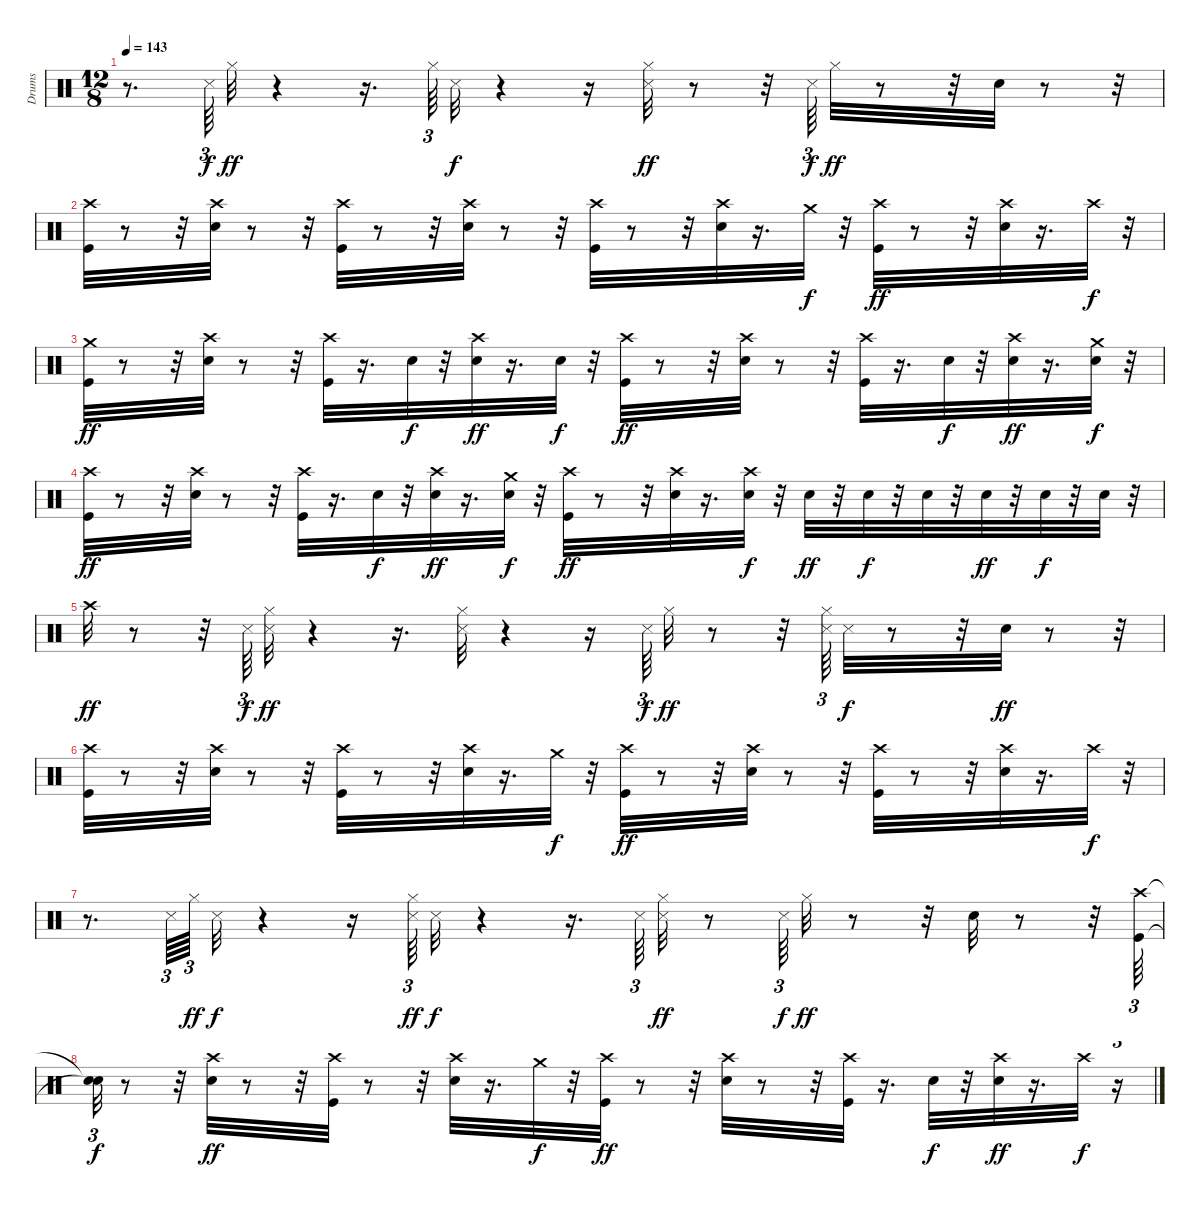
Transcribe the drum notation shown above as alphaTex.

\track ("Drums" "Drums") {instrument percussion}
\staff {score}
\articulation defaults
\ts (12 8)
\tempo 143
\clef neutral
\ks c
r.8{d dy f} "Metronome (hit)".64{tu (3 2)} "Hi-Hat (closed)".32{dy ff} r.4 r.16{d} "Hi-Hat (closed)".64{tu (3 2)} "Metronome (hit)".32{dy f} r.4 r.16 ("Metronome (hit)" "Hi-Hat (closed)").32{dy ff} r.8 r.32 "Metronome (hit)".64{tu (3 2) dy f} "Hi-Hat (closed)".32{dy ff} r.8 r.32 "Snare (hit) 2".32 r.8 r.32 |
("Crash high (hit)" "Kick (hit)").32 r.8 r.32 ("Crash high (hit)" "Snare (hit) 2").32 r.8 r.32 ("Crash high (hit)" "Kick (hit)").32 r.8 r.32 ("Crash high (hit)" "Snare (hit) 2").32 r.8 r.32 ("Crash high (hit)" "Kick (hit)").32 r.8 r.32 ("Crash high (hit)" "Snare (hit) 2").32 r.16{d} "Crash medium (hit)".32{dy f} r.32 ("Crash high (hit)" "Kick (hit)").32{dy ff} r.8 r.32 ("Crash high (hit)" "Snare (hit) 2").32 r.16{d} "Crash high (hit)".32{dy f} r.32 |
("Crash medium (hit)" "Kick (hit)").32{dy ff} r.8 r.32 ("Crash high (hit)" "Snare (hit) 2").32 r.8 r.32 ("Crash high (hit)" "Kick (hit)").32 r.16{d} "Snare (hit) 2".32{dy f} r.32 ("Crash high (hit)" "Snare (hit) 2").32{dy ff} r.16{d} "Snare (hit) 2".32{dy f} r.32 ("Crash high (hit)" "Kick (hit)").32{dy ff} r.8 r.32 ("Crash high (hit)" "Snare (hit) 2").32 r.8 r.32 ("Crash high (hit)" "Kick (hit)").32 r.16{d} "Snare (hit) 2".32{dy f} r.32 ("Crash high (hit)" "Snare (hit) 2").32{dy ff} r.16{d} ("Crash medium (hit)" "Snare (hit) 2").32{dy f} r.32 |
("Crash high (hit)" "Kick (hit)").32{dy ff} r.8 r.32 ("Crash high (hit)" "Snare (hit) 2").32 r.8 r.32 ("Crash high (hit)" "Kick (hit)").32 r.16{d} "Snare (hit) 2".32{dy f} r.32 ("Crash high (hit)" "Snare (hit) 2").32{dy ff} r.16{d} ("Crash medium (hit)" "Snare (hit) 2").32{dy f} r.32 ("Kick (hit)" "Crash high (hit)").32{dy ff} r.8 r.32 ("Snare (hit) 2" "Crash high (hit)").32 r.16{d} ("Electric Snare (hit)" "Crash high (hit)").32{dy f} r.32 "Snare (hit) 2".32{dy ff} r.32 "Snare (hit) 2".32{dy f} r.32 "Snare (hit) 2".32 r.32 "Snare (hit) 2".32{dy ff} r.32 "Snare (hit) 2".32{dy f} r.32 "Snare (hit) 2".32 r.32 |
"Crash high (hit)".32{dy ff} r.8 r.32 "Metronome (hit)".64{tu (3 2) dy f} ("Metronome (hit)" "Hi-Hat (closed)").32{dy ff} r.4 r.16{d} ("Metronome (hit)" "Hi-Hat (closed)").32 r.4 r.16 "Metronome (hit)".64{tu (3 2) dy f} "Hi-Hat (closed)".32{dy ff} r.8 r.32 ("Metronome (hit)" "Hi-Hat (closed)").64{tu (3 2)} "Metronome (hit)".32{dy f} r.8 r.32 "Snare (hit) 2".32{dy ff} r.8 r.32 |
("Crash high (hit)" "Kick (hit)").32 r.8 r.32 ("Crash high (hit)" "Snare (hit) 2").32 r.8 r.32 ("Crash high (hit)" "Kick (hit)").32 r.8 r.32 ("Crash high (hit)" "Snare (hit) 2").32 r.16{d} "Crash medium (hit)".32{dy f} r.32 ("Crash high (hit)" "Kick (hit)").32{dy ff} r.8 r.32 ("Crash high (hit)" "Snare (hit) 2").32 r.8 r.32 ("Crash high (hit)" "Kick (hit)").32 r.8 r.32 ("Crash high (hit)" "Snare (hit) 2").32 r.16{d} "Crash high (hit)".32{dy f} r.32 |
r.8{d} "Metronome (hit)".64{tu (3 2)} "Hi-Hat (closed)".64{tu (3 2) dy ff} "Metronome (hit)".32{dy f} r.4 r.16 ("Metronome (hit)" "Hi-Hat (closed)").64{tu (3 2) dy ff} "Metronome (hit)".32{dy f} r.4 r.16{d} "Metronome (hit)".64{tu (3 2)} ("Metronome (hit)" "Hi-Hat (closed)").32{dy ff} r.8 "Metronome (hit)".64{tu (3 2) dy f} "Hi-Hat (closed)".32{dy ff} r.8 r.32 "Snare (hit) 2".32 r.8 r.32 ("Crash high (hit)" "Kick (hit)").64{tu (3 2)} |
("Snare (hit)"{t} "Snare (hit)"{t}).32{tu (3 2) dy f} r.8 r.32 ("Crash high (hit)" "Snare (hit) 2").32{dy ff} r.8 r.32 ("Crash high (hit)" "Kick (hit)").32 r.8 r.32 ("Crash high (hit)" "Snare (hit) 2").32 r.16{d} "Crash medium (hit)".32{dy f} r.32 ("Crash high (hit)" "Kick (hit)").32{dy ff} r.8 r.32 ("Crash high (hit)" "Snare (hit) 2").32 r.8 r.32 ("Crash high (hit)" "Kick (hit)").32 r.16{d} "Snare (hit) 2".32{dy f} r.32 ("Crash high (hit)" "Snare (hit) 2").32{dy ff} r.16{d} "Crash high (hit)".32{dy f} r.16{tu (3 2)}
